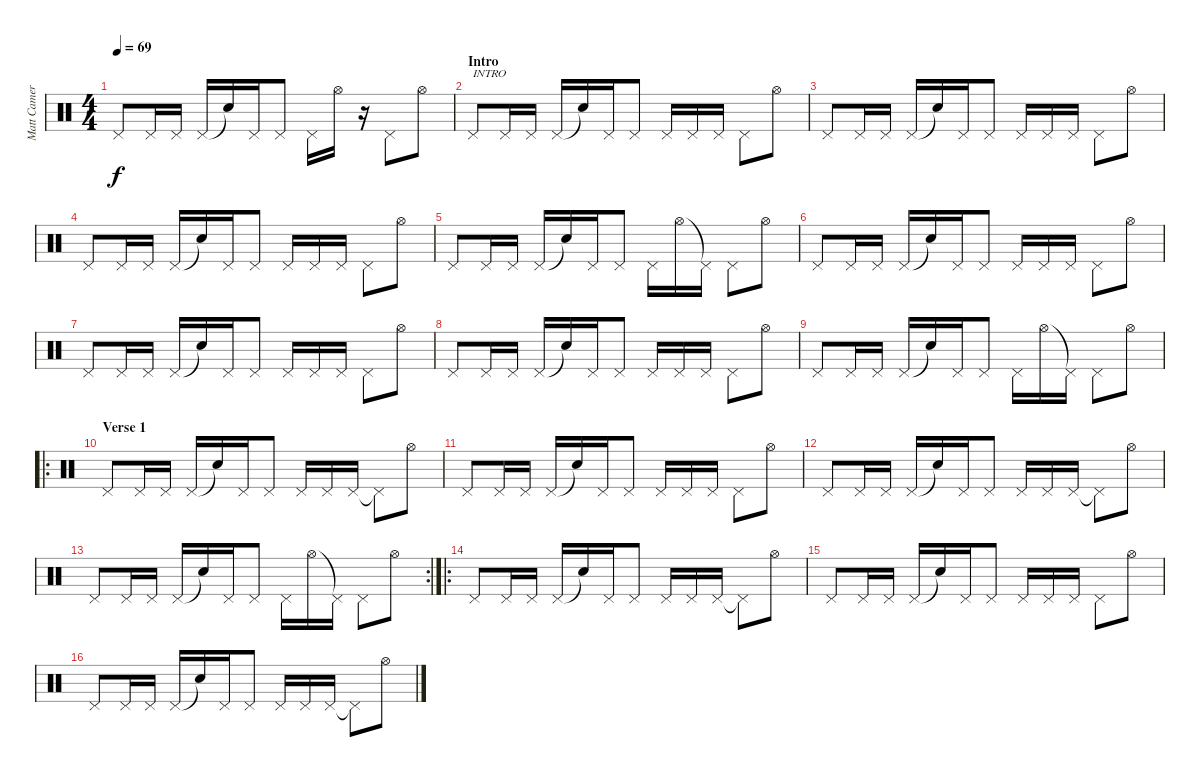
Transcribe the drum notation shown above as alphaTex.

\track ("Matt Cameron" "Matt Camer") {instrument percussion}
\staff {score}
\articulation defaults
\ts (4 4)
\tempo 69
\clef neutral
\ks c "Pedal Hi-Hat (hit)".8{dy f} "Pedal Hi-Hat (hit)".16 "Pedal Hi-Hat (hit)".16 "Pedal Hi-Hat (hit)".16 "Snare (hit)"{t}.16 "Pedal Hi-Hat (hit)".16 "Pedal Hi-Hat (hit)".8 "Pedal Hi-Hat (hit)".16 "Hi-Hat (open)".16
r.16 "Pedal Hi-Hat (hit)".8 "Hi-Hat (open)".8 |
\section ("" "Intro")
"Pedal Hi-Hat (hit)".8{txt "INTRO"} "Pedal Hi-Hat (hit)".16 "Pedal Hi-Hat (hit)".16 "Pedal Hi-Hat (hit)".16 "Snare (hit)"{t}.16 "Pedal Hi-Hat (hit)".16 "Pedal Hi-Hat (hit)".8 "Pedal Hi-Hat (hit)".16 "Pedal Hi-Hat (hit)".16 "Pedal Hi-Hat (hit)".16 "Pedal Hi-Hat (hit)".8 "Hi-Hat (open)".8 |
"Pedal Hi-Hat (hit)".8 "Pedal Hi-Hat (hit)".16 "Pedal Hi-Hat (hit)".16 "Pedal Hi-Hat (hit)".16 "Snare (hit)"{t}.16 "Pedal Hi-Hat (hit)".16 "Pedal Hi-Hat (hit)".8 "Pedal Hi-Hat (hit)".16 "Pedal Hi-Hat (hit)".16 "Pedal Hi-Hat (hit)".16 "Pedal Hi-Hat (hit)".8 "Hi-Hat (open)".8 |
"Pedal Hi-Hat (hit)".8 "Pedal Hi-Hat (hit)".16 "Pedal Hi-Hat (hit)".16 "Pedal Hi-Hat (hit)".16 "Snare (hit)"{t}.16 "Pedal Hi-Hat (hit)".16 "Pedal Hi-Hat (hit)".8 "Pedal Hi-Hat (hit)".16 "Pedal Hi-Hat (hit)".16 "Pedal Hi-Hat (hit)".16 "Pedal Hi-Hat (hit)".8 "Hi-Hat (open)".8 |
"Pedal Hi-Hat (hit)".8 "Pedal Hi-Hat (hit)".16 "Pedal Hi-Hat (hit)".16 "Pedal Hi-Hat (hit)".16 "Snare (hit)"{t}.16 "Pedal Hi-Hat (hit)".16 "Pedal Hi-Hat (hit)".8 "Pedal Hi-Hat (hit)".16 "Hi-Hat (open)".16 "Pedal Hi-Hat (hit)"{t}.16 "Pedal Hi-Hat (hit)".8 "Hi-Hat (open)".8 |
"Pedal Hi-Hat (hit)".8 "Pedal Hi-Hat (hit)".16 "Pedal Hi-Hat (hit)".16 "Pedal Hi-Hat (hit)".16 "Snare (hit)"{t}.16 "Pedal Hi-Hat (hit)".16 "Pedal Hi-Hat (hit)".8 "Pedal Hi-Hat (hit)".16 "Pedal Hi-Hat (hit)".16 "Pedal Hi-Hat (hit)".16 "Pedal Hi-Hat (hit)".8 "Hi-Hat (open)".8 |
"Pedal Hi-Hat (hit)".8 "Pedal Hi-Hat (hit)".16 "Pedal Hi-Hat (hit)".16 "Pedal Hi-Hat (hit)".16 "Snare (hit)"{t}.16 "Pedal Hi-Hat (hit)".16 "Pedal Hi-Hat (hit)".8 "Pedal Hi-Hat (hit)".16 "Pedal Hi-Hat (hit)".16 "Pedal Hi-Hat (hit)".16 "Pedal Hi-Hat (hit)".8 "Hi-Hat (open)".8 |
"Pedal Hi-Hat (hit)".8 "Pedal Hi-Hat (hit)".16 "Pedal Hi-Hat (hit)".16 "Pedal Hi-Hat (hit)".16 "Snare (hit)"{t}.16 "Pedal Hi-Hat (hit)".16 "Pedal Hi-Hat (hit)".8 "Pedal Hi-Hat (hit)".16 "Pedal Hi-Hat (hit)".16 "Pedal Hi-Hat (hit)".16 "Pedal Hi-Hat (hit)".8 "Hi-Hat (open)".8 |
"Pedal Hi-Hat (hit)".8 "Pedal Hi-Hat (hit)".16 "Pedal Hi-Hat (hit)".16 "Pedal Hi-Hat (hit)".16 "Snare (hit)"{t}.16 "Pedal Hi-Hat (hit)".16 "Pedal Hi-Hat (hit)".8 "Pedal Hi-Hat (hit)".16 "Hi-Hat (open)".16 "Pedal Hi-Hat (hit)"{t}.16 "Pedal Hi-Hat (hit)".8 "Hi-Hat (open)".8 |
\ro
\section ("" "Verse 1")
"Pedal Hi-Hat (hit)".8 "Pedal Hi-Hat (hit)".16 "Pedal Hi-Hat (hit)".16 "Pedal Hi-Hat (hit)".16 "Snare (hit)"{t}.16 "Pedal Hi-Hat (hit)".16 "Pedal Hi-Hat (hit)".8 "Pedal Hi-Hat (hit)".16 "Pedal Hi-Hat (hit)".16 "Pedal Hi-Hat (hit)".16 "Pedal Hi-Hat (hit)"{t}.8 "Hi-Hat (open)".8 |
"Pedal Hi-Hat (hit)".8 "Pedal Hi-Hat (hit)".16 "Pedal Hi-Hat (hit)".16 "Pedal Hi-Hat (hit)".16 "Snare (hit)"{t}.16 "Pedal Hi-Hat (hit)".16 "Pedal Hi-Hat (hit)".8 "Pedal Hi-Hat (hit)".16 "Pedal Hi-Hat (hit)".16 "Pedal Hi-Hat (hit)".16 "Pedal Hi-Hat (hit)".8 "Hi-Hat (open)".8 |
"Pedal Hi-Hat (hit)".8 "Pedal Hi-Hat (hit)".16 "Pedal Hi-Hat (hit)".16 "Pedal Hi-Hat (hit)".16 "Snare (hit)"{t}.16 "Pedal Hi-Hat (hit)".16 "Pedal Hi-Hat (hit)".8 "Pedal Hi-Hat (hit)".16 "Pedal Hi-Hat (hit)".16 "Pedal Hi-Hat (hit)".16 "Pedal Hi-Hat (hit)"{t}.8 "Hi-Hat (open)".8 |
\rc 2 "Pedal Hi-Hat (hit)".8 "Pedal Hi-Hat (hit)".16 "Pedal Hi-Hat (hit)".16 "Pedal Hi-Hat (hit)".16 "Snare (hit)"{t}.16 "Pedal Hi-Hat (hit)".16 "Pedal Hi-Hat (hit)".8 "Pedal Hi-Hat (hit)".16 "Hi-Hat (open)".16 "Pedal Hi-Hat (hit)"{t}.16 "Pedal Hi-Hat (hit)".8 "Hi-Hat (open)".8
|
\ro "Pedal Hi-Hat (hit)".8 "Pedal Hi-Hat (hit)".16 "Pedal Hi-Hat (hit)".16 "Pedal Hi-Hat (hit)".16 "Snare (hit)"{t}.16 "Pedal Hi-Hat (hit)".16 "Pedal Hi-Hat (hit)".8 "Pedal Hi-Hat (hit)".16 "Pedal Hi-Hat (hit)".16 "Pedal Hi-Hat (hit)".16 "Pedal Hi-Hat (hit)"{t}.8 "Hi-Hat (open)".8
|
"Pedal Hi-Hat (hit)".8 "Pedal Hi-Hat (hit)".16 "Pedal Hi-Hat (hit)".16 "Pedal Hi-Hat (hit)".16 "Snare (hit)"{t}.16 "Pedal Hi-Hat (hit)".16 "Pedal Hi-Hat (hit)".8 "Pedal Hi-Hat (hit)".16 "Pedal Hi-Hat (hit)".16 "Pedal Hi-Hat (hit)".16 "Pedal Hi-Hat (hit)".8 "Hi-Hat (open)".8 |
"Pedal Hi-Hat (hit)".8 "Pedal Hi-Hat (hit)".16 "Pedal Hi-Hat (hit)".16 "Pedal Hi-Hat (hit)".16 "Snare (hit)"{t}.16 "Pedal Hi-Hat (hit)".16 "Pedal Hi-Hat (hit)".8 "Pedal Hi-Hat (hit)".16 "Pedal Hi-Hat (hit)".16 "Pedal Hi-Hat (hit)".16 "Pedal Hi-Hat (hit)"{t}.8 "Hi-Hat (open)".8
